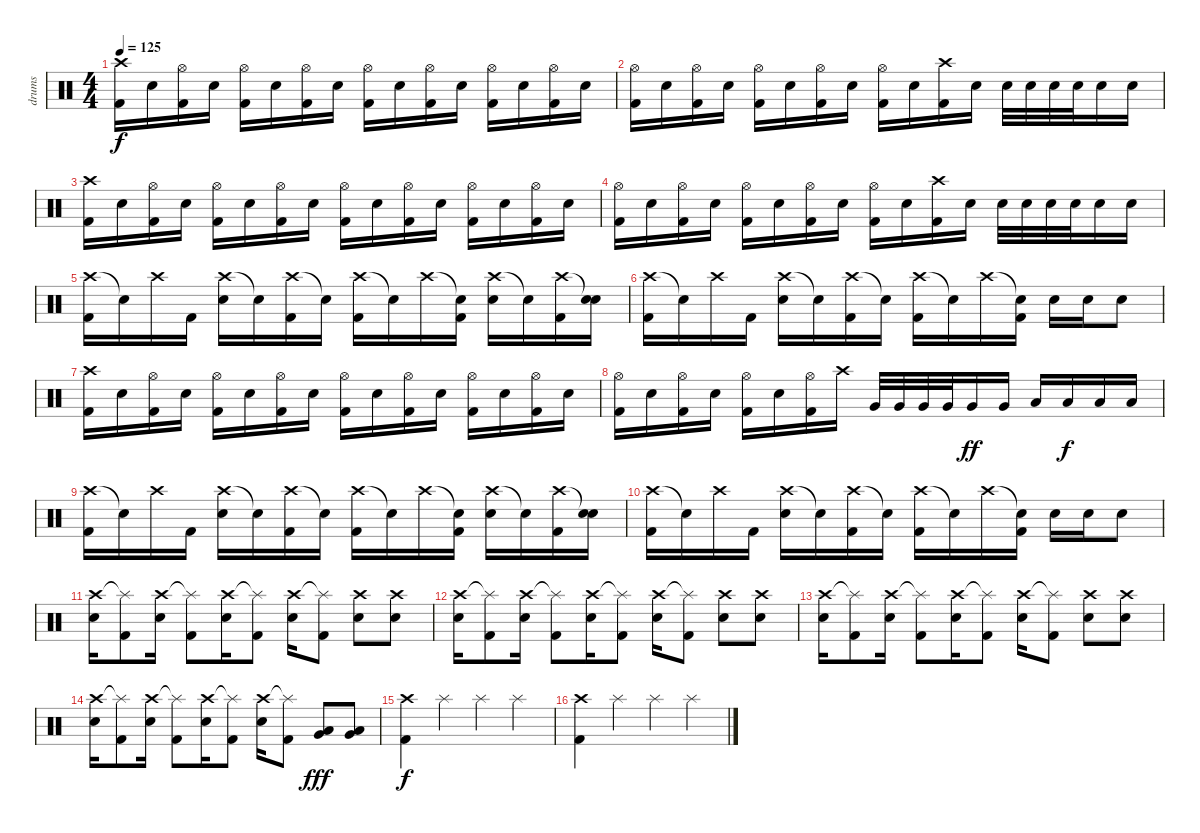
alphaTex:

\track ("drums" "drums") {instrument percussion}
\staff {score}
\articulation defaults
\ts (4 4)
\tempo 125
\clef neutral
\ks c
("Crash high (hit)" "Kick (hit) 2").16{dy f} "Electric Snare (hit)".16 ("Hi-Hat (open)" "Kick (hit) 2").16 "Electric Snare (hit)".16 ("Hi-Hat (open)" "Kick (hit) 2").16 "Electric Snare (hit)".16 ("Hi-Hat (open)" "Kick (hit) 2").16 "Electric Snare (hit)".16 ("Hi-Hat (open)" "Kick (hit) 2").16 "Electric Snare (hit)".16 ("Hi-Hat (open)" "Kick (hit) 2").16 "Electric Snare (hit)".16 ("Hi-Hat (open)" "Kick (hit) 2").16 "Electric Snare (hit)".16 ("Hi-Hat (open)" "Kick (hit) 2").16 "Electric Snare (hit)".16 |
("Hi-Hat (open)" "Kick (hit) 2").16 "Electric Snare (hit)".16 ("Hi-Hat (open)" "Kick (hit) 2").16 "Electric Snare (hit)".16 ("Hi-Hat (open)" "Kick (hit) 2").16 "Electric Snare (hit)".16 ("Hi-Hat (open)" "Kick (hit) 2").16 "Electric Snare (hit)".16 ("Hi-Hat (open)" "Kick (hit) 2").16 "Electric Snare (hit)".16 ("Crash high (hit)" "Kick (hit) 2").16 "Electric Snare (hit)".16 "Electric Snare (hit)".32 "Electric Snare (hit)".32 "Electric Snare (hit)".32 "Electric Snare (hit)".32 "Electric Snare (hit)".16 "Electric Snare (hit)".16 |
("Crash high (hit)" "Kick (hit) 2").16 "Electric Snare (hit)".16 ("Hi-Hat (open)" "Kick (hit) 2").16 "Electric Snare (hit)".16 ("Hi-Hat (open)" "Kick (hit) 2").16 "Electric Snare (hit)".16 ("Hi-Hat (open)" "Kick (hit) 2").16 "Electric Snare (hit)".16 ("Hi-Hat (open)" "Kick (hit) 2").16 "Electric Snare (hit)".16 ("Hi-Hat (open)" "Kick (hit) 2").16 "Electric Snare (hit)".16 ("Hi-Hat (open)" "Kick (hit) 2").16 "Electric Snare (hit)".16 ("Hi-Hat (open)" "Kick (hit) 2").16 "Electric Snare (hit)".16 |
("Hi-Hat (open)" "Kick (hit) 2").16 "Electric Snare (hit)".16 ("Hi-Hat (open)" "Kick (hit) 2").16 "Electric Snare (hit)".16 ("Hi-Hat (open)" "Kick (hit) 2").16 "Electric Snare (hit)".16 ("Hi-Hat (open)" "Kick (hit) 2").16 "Electric Snare (hit)".16 ("Hi-Hat (open)" "Kick (hit) 2").16 "Electric Snare (hit)".16 ("Crash high (hit)" "Kick (hit) 2").16 "Electric Snare (hit)".16 "Electric Snare (hit)".32 "Electric Snare (hit)".32 "Electric Snare (hit)".32 "Electric Snare (hit)".32 "Electric Snare (hit)".16 "Electric Snare (hit)".16 |
("Crash high (hit)" "Kick (hit) 2").16 "Snare (hit)"{t}.16 "Crash high (hit)".16 "Kick (hit) 2".16 ("Crash high (hit)" "Electric Snare (hit)").16 "Snare (hit)"{t}.16 ("Crash high (hit)" "Kick (hit) 2").16 "Snare (hit)"{t}.16 ("Crash high (hit)" "Kick (hit) 2").16 "Snare (hit)"{t}.16 "Crash high (hit)".16 ("Snare (hit)"{t} "Kick (hit) 2").16 ("Crash high (hit)" "Electric Snare (hit)").16 "Snare (hit)"{t}.16 ("Crash high (hit)" "Kick (hit) 2").16 ("Snare (hit)"{t} "Electric Snare (hit)").16 |
("Crash high (hit)" "Kick (hit) 2").16 "Snare (hit)"{t}.16 "Crash high (hit)".16 "Kick (hit) 2".16 ("Crash high (hit)" "Electric Snare (hit)").16 "Snare (hit)"{t}.16 ("Crash high (hit)" "Kick (hit) 2").16 "Snare (hit)"{t}.16 ("Crash high (hit)" "Kick (hit) 2").16 "Snare (hit)"{t}.16 "Crash high (hit)".16 ("Snare (hit)"{t} "Kick (hit) 2").16 "Electric Snare (hit)".16 "Electric Snare (hit)".16 "Electric Snare (hit)".8 |
("Crash high (hit)" "Kick (hit) 2").16 "Electric Snare (hit)".16 ("Hi-Hat (open)" "Kick (hit) 2").16 "Electric Snare (hit)".16 ("Hi-Hat (open)" "Kick (hit) 2").16 "Electric Snare (hit)".16 ("Hi-Hat (open)" "Kick (hit) 2").16 "Electric Snare (hit)".16 ("Hi-Hat (open)" "Kick (hit) 2").16 "Electric Snare (hit)".16 ("Hi-Hat (open)" "Kick (hit) 2").16 "Electric Snare (hit)".16 ("Hi-Hat (open)" "Kick (hit) 2").16 "Electric Snare (hit)".16 ("Hi-Hat (open)" "Kick (hit) 2").16 "Electric Snare (hit)".16 |
("Hi-Hat (open)" "Kick (hit) 2").16 "Electric Snare (hit)".16 ("Hi-Hat (open)" "Kick (hit) 2").16 "Electric Snare (hit)".16 ("Hi-Hat (open)" "Kick (hit) 2").16 "Electric Snare (hit)".16 ("Hi-Hat (open)" "Kick (hit) 2").16 "Crash high (hit)".16 "Very Low Tom (hit)".32 "Very Low Tom (hit)".32 "Very Low Tom (hit)".32 "Very Low Tom (hit)".32 "Very Low Tom (hit)".16{dy ff} "Very Low Tom (hit)".16 "Low Floor Tom (hit)".16 "Low Floor Tom (hit)".16{dy f} "Low Floor Tom (hit)".16 "Low Floor Tom (hit)".16 |
("Crash high (hit)" "Kick (hit) 2").16 "Snare (hit)"{t}.16 "Crash high (hit)".16 "Kick (hit) 2".16 ("Crash high (hit)" "Electric Snare (hit)").16 "Snare (hit)"{t}.16 ("Crash high (hit)" "Kick (hit) 2").16 "Snare (hit)"{t}.16 ("Crash high (hit)" "Kick (hit) 2").16 "Snare (hit)"{t}.16 "Crash high (hit)".16 ("Snare (hit)"{t} "Kick (hit) 2").16 ("Crash high (hit)" "Electric Snare (hit)").16 "Snare (hit)"{t}.16 ("Crash high (hit)" "Kick (hit) 2").16 ("Snare (hit)"{t} "Electric Snare (hit)").16 |
("Crash high (hit)" "Kick (hit) 2").16 "Snare (hit)"{t}.16 "Crash high (hit)".16 "Kick (hit) 2".16 ("Crash high (hit)" "Electric Snare (hit)").16 "Snare (hit)"{t}.16 ("Crash high (hit)" "Kick (hit) 2").16 "Snare (hit)"{t}.16 ("Crash high (hit)" "Kick (hit) 2").16 "Snare (hit)"{t}.16 "Crash high (hit)".16 ("Snare (hit)"{t} "Kick (hit) 2").16 "Electric Snare (hit)".16 "Electric Snare (hit)".16 "Electric Snare (hit)".8 |
("Crash high (hit)" "Electric Snare (hit)").16 ("Splash (hit)"{t} "Kick (hit) 2").8 ("Crash high (hit)" "Electric Snare (hit)").16 ("Splash (hit)"{t} "Kick (hit) 2").8 ("Crash high (hit)" "Electric Snare (hit)").16 ("Splash (hit)"{t} "Kick (hit) 2").8 ("Crash high (hit)" "Electric Snare (hit)").16 ("Splash (hit)"{t} "Kick (hit) 2").8 ("Crash high (hit)" "Electric Snare (hit)").8 ("Crash high (hit)" "Electric Snare (hit)").8 |
("Crash high (hit)" "Electric Snare (hit)").16 ("Splash (hit)"{t} "Kick (hit) 2").8 ("Crash high (hit)" "Electric Snare (hit)").16 ("Splash (hit)"{t} "Kick (hit) 2").8 ("Crash high (hit)" "Electric Snare (hit)").16 ("Splash (hit)"{t} "Kick (hit) 2").8 ("Crash high (hit)" "Electric Snare (hit)").16 ("Splash (hit)"{t} "Kick (hit) 2").8 ("Crash high (hit)" "Electric Snare (hit)").8 ("Crash high (hit)" "Electric Snare (hit)").8 |
("Crash high (hit)" "Electric Snare (hit)").16 ("Splash (hit)"{t} "Kick (hit) 2").8 ("Crash high (hit)" "Electric Snare (hit)").16 ("Splash (hit)"{t} "Kick (hit) 2").8 ("Crash high (hit)" "Electric Snare (hit)").16 ("Splash (hit)"{t} "Kick (hit) 2").8 ("Crash high (hit)" "Electric Snare (hit)").16 ("Splash (hit)"{t} "Kick (hit) 2").8 ("Crash high (hit)" "Electric Snare (hit)").8 ("Crash high (hit)" "Electric Snare (hit)").8 |
("Crash high (hit)" "Electric Snare (hit)").16 ("Splash (hit)"{t} "Kick (hit) 2").8 ("Crash high (hit)" "Electric Snare (hit)").16 ("Splash (hit)"{t} "Kick (hit) 2").8 ("Crash high (hit)" "Electric Snare (hit)").16 ("Splash (hit)"{t} "Kick (hit) 2").8 ("Crash high (hit)" "Electric Snare (hit)").16 ("Splash (hit)"{t} "Kick (hit) 2").8 ("Low Floor Tom (hit)" "Very Low Tom (hit)").8{dy fff} ("Low Floor Tom (hit)" "Very Low Tom (hit)").8 |
("Crash high (hit)" "Kick (hit) 2").4{dy f} "Splash (hit)".4 "Splash (hit)".4 "Splash (hit)".4 |
("Crash high (hit)" "Kick (hit) 2").4 "Splash (hit)".4 "Splash (hit)".4 "Splash (hit)".4
